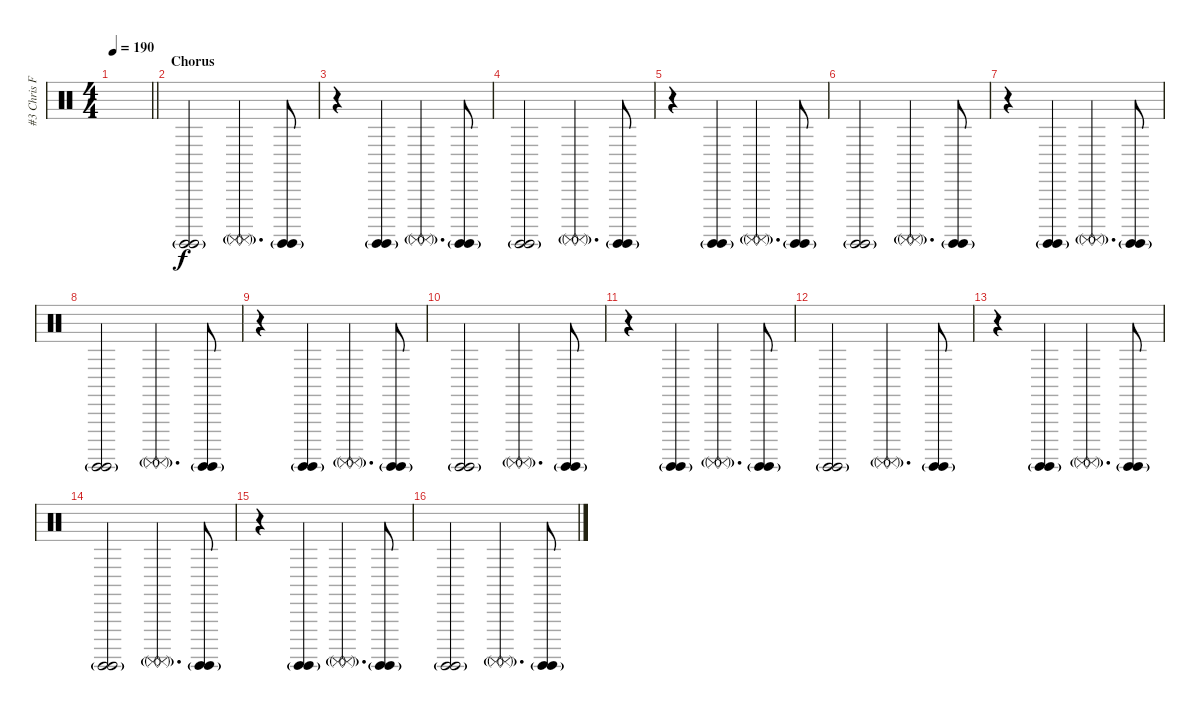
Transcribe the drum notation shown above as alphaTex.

\track ("#3 Chris Fehn" "#3 Chris F") {instrument percussion}
\staff {score}
\articulation defaults
\ts (4 4)
\tempo 190
\clef neutral
\barLineRight lightlight
\ks c
|
\section ("" "Chorus")
("Surdo (hit)"{g} "Surdo (hit)"{g}).2 ("Surdo (mute)"{g} "Surdo (mute)"{g}).4{d} ("Surdo (hit)"{g} "Surdo (hit)"{g}).8 |
r.4 ("Surdo (hit)"{g} "Surdo (hit)"{g}).4 ("Surdo (mute)"{g} "Surdo (mute)"{g}).4{d} ("Surdo (hit)"{g} "Surdo (hit)"{g}).8 |
("Surdo (hit)"{g} "Surdo (hit)"{g}).2 ("Surdo (mute)"{g} "Surdo (mute)"{g}).4{d} ("Surdo (hit)"{g} "Surdo (hit)"{g}).8 |
r.4 ("Surdo (hit)"{g} "Surdo (hit)"{g}).4 ("Surdo (mute)"{g} "Surdo (mute)"{g}).4{d} ("Surdo (hit)"{g} "Surdo (hit)"{g}).8 |
("Surdo (hit)"{g} "Surdo (hit)"{g}).2 ("Surdo (mute)"{g} "Surdo (mute)"{g}).4{d} ("Surdo (hit)"{g} "Surdo (hit)"{g}).8 |
r.4 ("Surdo (hit)"{g} "Surdo (hit)"{g}).4 ("Surdo (mute)"{g} "Surdo (mute)"{g}).4{d} ("Surdo (hit)"{g} "Surdo (hit)"{g}).8 |
("Surdo (hit)"{g} "Surdo (hit)"{g}).2 ("Surdo (mute)"{g} "Surdo (mute)"{g}).4{d} ("Surdo (hit)"{g} "Surdo (hit)"{g}).8 |
r.4 ("Surdo (hit)"{g} "Surdo (hit)"{g}).4 ("Surdo (mute)"{g} "Surdo (mute)"{g}).4{d} ("Surdo (hit)"{g} "Surdo (hit)"{g}).8 |
("Surdo (hit)"{g} "Surdo (hit)"{g}).2 ("Surdo (mute)"{g} "Surdo (mute)"{g}).4{d} ("Surdo (hit)"{g} "Surdo (hit)"{g}).8 |
r.4 ("Surdo (hit)"{g} "Surdo (hit)"{g}).4 ("Surdo (mute)"{g} "Surdo (mute)"{g}).4{d} ("Surdo (hit)"{g} "Surdo (hit)"{g}).8 |
("Surdo (hit)"{g} "Surdo (hit)"{g}).2 ("Surdo (mute)"{g} "Surdo (mute)"{g}).4{d} ("Surdo (hit)"{g} "Surdo (hit)"{g}).8 |
r.4 ("Surdo (hit)"{g} "Surdo (hit)"{g}).4 ("Surdo (mute)"{g} "Surdo (mute)"{g}).4{d} ("Surdo (hit)"{g} "Surdo (hit)"{g}).8 |
("Surdo (hit)"{g} "Surdo (hit)"{g}).2 ("Surdo (mute)"{g} "Surdo (mute)"{g}).4{d} ("Surdo (hit)"{g} "Surdo (hit)"{g}).8 |
r.4 ("Surdo (hit)"{g} "Surdo (hit)"{g}).4 ("Surdo (mute)"{g} "Surdo (mute)"{g}).4{d} ("Surdo (hit)"{g} "Surdo (hit)"{g}).8 |
("Surdo (hit)"{g} "Surdo (hit)"{g}).2 ("Surdo (mute)"{g} "Surdo (mute)"{g}).4{d} ("Surdo (hit)"{g} "Surdo (hit)"{g}).8
